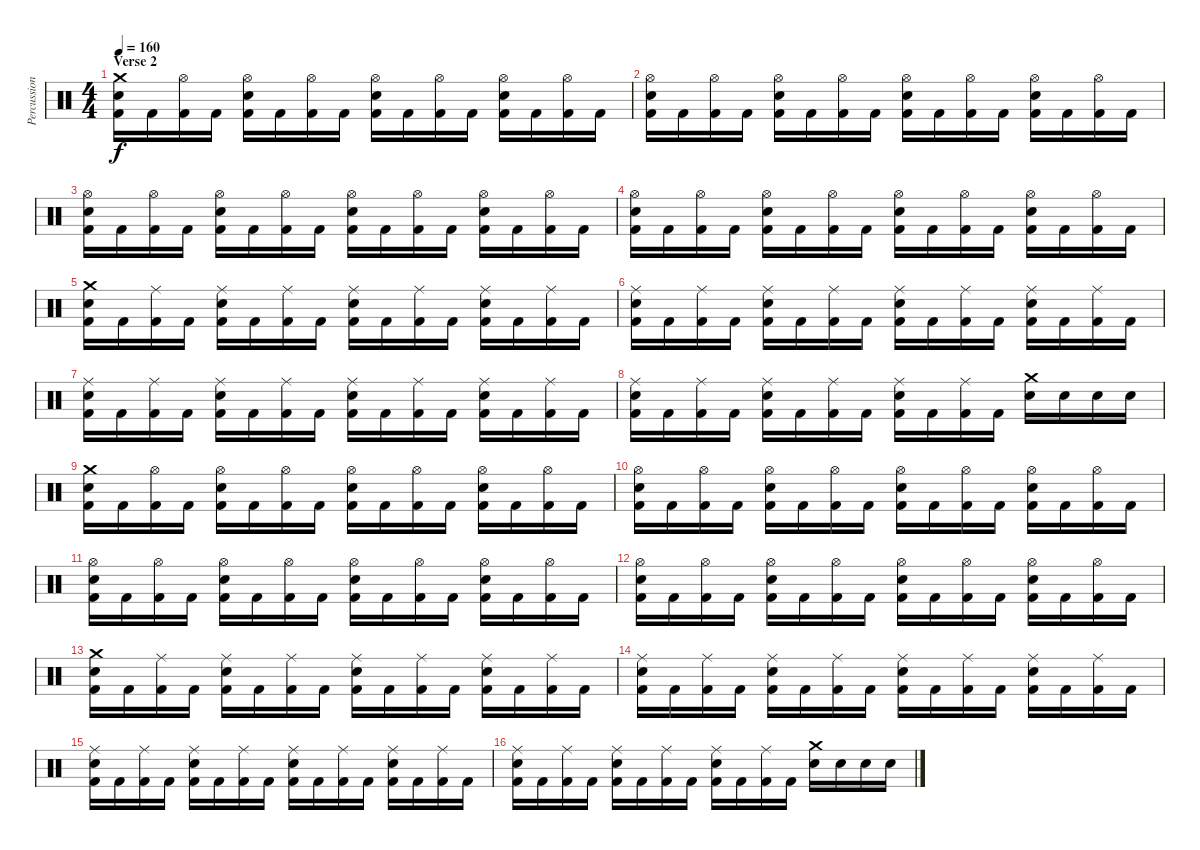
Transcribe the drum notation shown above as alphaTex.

\track ("Percussion" "Percussion") {instrument percussion}
\staff {score}
\articulation defaults
\ts (4 4)
\section ("" "Verse 2")
\tempo 160
\clef neutral
\ks c
("Crash medium (hit)" "Snare (hit) 2" "Kick (hit) 2").16{dy f} "Kick (hit) 2".16 ("Hi-Hat (open)" "Kick (hit) 2").16 "Kick (hit) 2".16 ("Hi-Hat (open)" "Snare (hit) 2" "Kick (hit) 2").16 "Kick (hit) 2".16 ("Hi-Hat (open)" "Kick (hit) 2").16 "Kick (hit) 2".16 ("Hi-Hat (open)" "Snare (hit) 2" "Kick (hit) 2").16 "Kick (hit) 2".16 ("Hi-Hat (open)" "Kick (hit) 2").16 "Kick (hit) 2".16 ("Hi-Hat (open)" "Snare (hit) 2" "Kick (hit) 2").16 "Kick (hit) 2".16 ("Hi-Hat (open)" "Kick (hit) 2").16 "Kick (hit) 2".16 |
("Hi-Hat (open)" "Snare (hit) 2" "Kick (hit) 2").16 "Kick (hit) 2".16 ("Hi-Hat (open)" "Kick (hit) 2").16 "Kick (hit) 2".16 ("Hi-Hat (open)" "Snare (hit) 2" "Kick (hit) 2").16 "Kick (hit) 2".16 ("Hi-Hat (open)" "Kick (hit) 2").16 "Kick (hit) 2".16 ("Hi-Hat (open)" "Snare (hit) 2" "Kick (hit) 2").16 "Kick (hit) 2".16 ("Hi-Hat (open)" "Kick (hit) 2").16 "Kick (hit) 2".16 ("Hi-Hat (open)" "Snare (hit) 2" "Kick (hit) 2").16 "Kick (hit) 2".16 ("Hi-Hat (open)" "Kick (hit) 2").16 "Kick (hit) 2".16 |
("Hi-Hat (open)" "Snare (hit) 2" "Kick (hit) 2").16 "Kick (hit) 2".16 ("Hi-Hat (open)" "Kick (hit) 2").16 "Kick (hit) 2".16 ("Hi-Hat (open)" "Snare (hit) 2" "Kick (hit) 2").16 "Kick (hit) 2".16 ("Hi-Hat (open)" "Kick (hit) 2").16 "Kick (hit) 2".16 ("Hi-Hat (open)" "Snare (hit) 2" "Kick (hit) 2").16 "Kick (hit) 2".16 ("Hi-Hat (open)" "Kick (hit) 2").16 "Kick (hit) 2".16 ("Hi-Hat (open)" "Snare (hit) 2" "Kick (hit) 2").16 "Kick (hit) 2".16 ("Hi-Hat (open)" "Kick (hit) 2").16 "Kick (hit) 2".16 |
("Hi-Hat (open)" "Snare (hit) 2" "Kick (hit) 2").16 "Kick (hit) 2".16 ("Hi-Hat (open)" "Kick (hit) 2").16 "Kick (hit) 2".16 ("Hi-Hat (open)" "Snare (hit) 2" "Kick (hit) 2").16 "Kick (hit) 2".16 ("Hi-Hat (open)" "Kick (hit) 2").16 "Kick (hit) 2".16 ("Hi-Hat (open)" "Snare (hit) 2" "Kick (hit) 2").16 "Kick (hit) 2".16 ("Hi-Hat (open)" "Kick (hit) 2").16 "Kick (hit) 2".16 ("Hi-Hat (open)" "Snare (hit) 2" "Kick (hit) 2").16 "Kick (hit) 2".16 ("Hi-Hat (open)" "Kick (hit) 2").16 "Kick (hit) 2".16 |
("Crash medium (hit)" "Snare (hit) 2" "Kick (hit) 2").16 "Kick (hit) 2".16 ("Ride (middle)" "Kick (hit) 2").16 "Kick (hit) 2".16 ("Ride (middle)" "Snare (hit) 2" "Kick (hit) 2").16 "Kick (hit) 2".16 ("Ride (middle)" "Kick (hit) 2").16 "Kick (hit) 2".16 ("Ride (middle)" "Snare (hit) 2" "Kick (hit) 2").16 "Kick (hit) 2".16 ("Ride (middle)" "Kick (hit) 2").16 "Kick (hit) 2".16 ("Ride (middle)" "Snare (hit) 2" "Kick (hit) 2").16 "Kick (hit) 2".16 ("Ride (middle)" "Kick (hit) 2").16 "Kick (hit) 2".16 |
("Ride (middle)" "Snare (hit) 2" "Kick (hit) 2").16 "Kick (hit) 2".16 ("Ride (middle)" "Kick (hit) 2").16 "Kick (hit) 2".16 ("Ride (middle)" "Snare (hit) 2" "Kick (hit) 2").16 "Kick (hit) 2".16 ("Ride (middle)" "Kick (hit) 2").16 "Kick (hit) 2".16 ("Ride (middle)" "Snare (hit) 2" "Kick (hit) 2").16 "Kick (hit) 2".16 ("Ride (middle)" "Kick (hit) 2").16 "Kick (hit) 2".16 ("Ride (middle)" "Snare (hit) 2" "Kick (hit) 2").16 "Kick (hit) 2".16 ("Ride (middle)" "Kick (hit) 2").16 "Kick (hit) 2".16 |
("Ride (middle)" "Snare (hit) 2" "Kick (hit) 2").16 "Kick (hit) 2".16 ("Ride (middle)" "Kick (hit) 2").16 "Kick (hit) 2".16 ("Ride (middle)" "Snare (hit) 2" "Kick (hit) 2").16 "Kick (hit) 2".16 ("Ride (middle)" "Kick (hit) 2").16 "Kick (hit) 2".16 ("Ride (middle)" "Snare (hit) 2" "Kick (hit) 2").16 "Kick (hit) 2".16 ("Ride (middle)" "Kick (hit) 2").16 "Kick (hit) 2".16 ("Ride (middle)" "Snare (hit) 2" "Kick (hit) 2").16 "Kick (hit) 2".16 ("Ride (middle)" "Kick (hit) 2").16 "Kick (hit) 2".16 |
("Ride (middle)" "Snare (hit) 2" "Kick (hit) 2").16 "Kick (hit) 2".16 ("Ride (middle)" "Kick (hit) 2").16 "Kick (hit) 2".16 ("Ride (middle)" "Snare (hit) 2" "Kick (hit) 2").16 "Kick (hit) 2".16 ("Ride (middle)" "Kick (hit) 2").16 "Kick (hit) 2".16 ("Ride (middle)" "Snare (hit) 2" "Kick (hit) 2").16 "Kick (hit) 2".16 ("Ride (middle)" "Kick (hit) 2").16 "Kick (hit) 2".16 ("Crash medium (hit)" "Snare (hit) 2").16 "Snare (hit) 2".16 "Snare (hit) 2".16 "Snare (hit) 2".16 |
("Crash medium (hit)" "Snare (hit) 2" "Kick (hit) 2").16 "Kick (hit) 2".16 ("Hi-Hat (open)" "Kick (hit) 2").16 "Kick (hit) 2".16 ("Hi-Hat (open)" "Snare (hit) 2" "Kick (hit) 2").16 "Kick (hit) 2".16 ("Hi-Hat (open)" "Kick (hit) 2").16 "Kick (hit) 2".16 ("Hi-Hat (open)" "Snare (hit) 2" "Kick (hit) 2").16 "Kick (hit) 2".16 ("Hi-Hat (open)" "Kick (hit) 2").16 "Kick (hit) 2".16 ("Hi-Hat (open)" "Snare (hit) 2" "Kick (hit) 2").16 "Kick (hit) 2".16 ("Hi-Hat (open)" "Kick (hit) 2").16 "Kick (hit) 2".16 |
("Hi-Hat (open)" "Snare (hit) 2" "Kick (hit) 2").16 "Kick (hit) 2".16 ("Hi-Hat (open)" "Kick (hit) 2").16 "Kick (hit) 2".16 ("Hi-Hat (open)" "Snare (hit) 2" "Kick (hit) 2").16 "Kick (hit) 2".16 ("Hi-Hat (open)" "Kick (hit) 2").16 "Kick (hit) 2".16 ("Hi-Hat (open)" "Snare (hit) 2" "Kick (hit) 2").16 "Kick (hit) 2".16 ("Hi-Hat (open)" "Kick (hit) 2").16 "Kick (hit) 2".16 ("Hi-Hat (open)" "Snare (hit) 2" "Kick (hit) 2").16 "Kick (hit) 2".16 ("Hi-Hat (open)" "Kick (hit) 2").16 "Kick (hit) 2".16 |
("Hi-Hat (open)" "Snare (hit) 2" "Kick (hit) 2").16 "Kick (hit) 2".16 ("Hi-Hat (open)" "Kick (hit) 2").16 "Kick (hit) 2".16 ("Hi-Hat (open)" "Snare (hit) 2" "Kick (hit) 2").16 "Kick (hit) 2".16 ("Hi-Hat (open)" "Kick (hit) 2").16 "Kick (hit) 2".16 ("Hi-Hat (open)" "Snare (hit) 2" "Kick (hit) 2").16 "Kick (hit) 2".16 ("Hi-Hat (open)" "Kick (hit) 2").16 "Kick (hit) 2".16 ("Hi-Hat (open)" "Snare (hit) 2" "Kick (hit) 2").16 "Kick (hit) 2".16 ("Hi-Hat (open)" "Kick (hit) 2").16 "Kick (hit) 2".16 |
("Hi-Hat (open)" "Snare (hit) 2" "Kick (hit) 2").16 "Kick (hit) 2".16 ("Hi-Hat (open)" "Kick (hit) 2").16 "Kick (hit) 2".16 ("Hi-Hat (open)" "Snare (hit) 2" "Kick (hit) 2").16 "Kick (hit) 2".16 ("Hi-Hat (open)" "Kick (hit) 2").16 "Kick (hit) 2".16 ("Hi-Hat (open)" "Snare (hit) 2" "Kick (hit) 2").16 "Kick (hit) 2".16 ("Hi-Hat (open)" "Kick (hit) 2").16 "Kick (hit) 2".16 ("Hi-Hat (open)" "Snare (hit) 2" "Kick (hit) 2").16 "Kick (hit) 2".16 ("Hi-Hat (open)" "Kick (hit) 2").16 "Kick (hit) 2".16 |
("Crash medium (hit)" "Snare (hit) 2" "Kick (hit) 2").16 "Kick (hit) 2".16 ("Ride (middle)" "Kick (hit) 2").16 "Kick (hit) 2".16 ("Ride (middle)" "Snare (hit) 2" "Kick (hit) 2").16 "Kick (hit) 2".16 ("Ride (middle)" "Kick (hit) 2").16 "Kick (hit) 2".16 ("Ride (middle)" "Snare (hit) 2" "Kick (hit) 2").16 "Kick (hit) 2".16 ("Ride (middle)" "Kick (hit) 2").16 "Kick (hit) 2".16 ("Ride (middle)" "Snare (hit) 2" "Kick (hit) 2").16 "Kick (hit) 2".16 ("Ride (middle)" "Kick (hit) 2").16 "Kick (hit) 2".16 |
("Ride (middle)" "Snare (hit) 2" "Kick (hit) 2").16 "Kick (hit) 2".16 ("Ride (middle)" "Kick (hit) 2").16 "Kick (hit) 2".16 ("Ride (middle)" "Snare (hit) 2" "Kick (hit) 2").16 "Kick (hit) 2".16 ("Ride (middle)" "Kick (hit) 2").16 "Kick (hit) 2".16 ("Ride (middle)" "Snare (hit) 2" "Kick (hit) 2").16 "Kick (hit) 2".16 ("Ride (middle)" "Kick (hit) 2").16 "Kick (hit) 2".16 ("Ride (middle)" "Snare (hit) 2" "Kick (hit) 2").16 "Kick (hit) 2".16 ("Ride (middle)" "Kick (hit) 2").16 "Kick (hit) 2".16 |
("Ride (middle)" "Snare (hit) 2" "Kick (hit) 2").16 "Kick (hit) 2".16 ("Ride (middle)" "Kick (hit) 2").16 "Kick (hit) 2".16 ("Ride (middle)" "Snare (hit) 2" "Kick (hit) 2").16 "Kick (hit) 2".16 ("Ride (middle)" "Kick (hit) 2").16 "Kick (hit) 2".16 ("Ride (middle)" "Snare (hit) 2" "Kick (hit) 2").16 "Kick (hit) 2".16 ("Ride (middle)" "Kick (hit) 2").16 "Kick (hit) 2".16 ("Ride (middle)" "Snare (hit) 2" "Kick (hit) 2").16 "Kick (hit) 2".16 ("Ride (middle)" "Kick (hit) 2").16 "Kick (hit) 2".16 |
("Ride (middle)" "Snare (hit) 2" "Kick (hit) 2").16 "Kick (hit) 2".16 ("Ride (middle)" "Kick (hit) 2").16 "Kick (hit) 2".16 ("Ride (middle)" "Snare (hit) 2" "Kick (hit) 2").16 "Kick (hit) 2".16 ("Ride (middle)" "Kick (hit) 2").16 "Kick (hit) 2".16 ("Ride (middle)" "Snare (hit) 2" "Kick (hit) 2").16 "Kick (hit) 2".16 ("Ride (middle)" "Kick (hit) 2").16 "Kick (hit) 2".16 ("Crash medium (hit)" "Snare (hit) 2").16 "Snare (hit) 2".16 "Snare (hit) 2".16 "Snare (hit) 2".16
